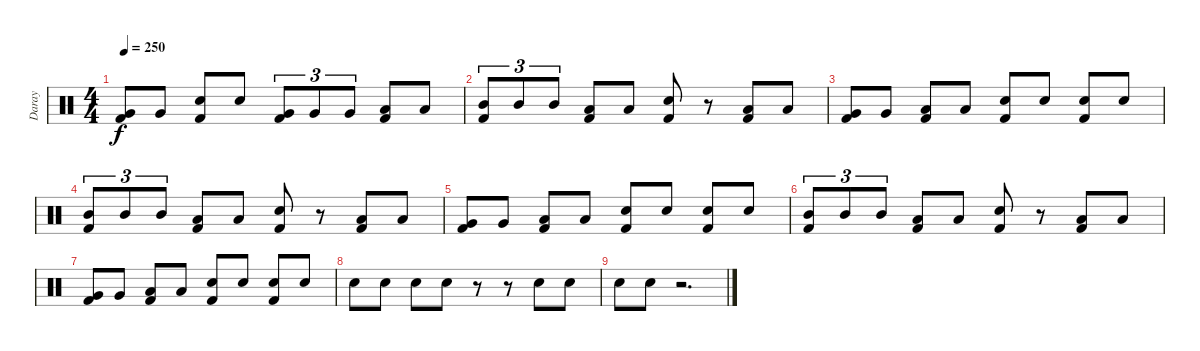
\track ("Daray" "Daray") {instrument percussion}
\staff {score}
\articulation defaults
\ts (4 4)
\tempo 250
\clef neutral
\ks c
("Very Low Tom (hit)" "Kick (hit) 2").8{dy f} "Very Low Tom (hit)".8 ("Electric Snare (hit)" "Kick (hit) 2").8 "Electric Snare (hit)".8 ("Very Low Tom (hit)" "Kick (hit) 2").8{tu (3 2)} "Very Low Tom (hit)".8{tu (3 2)} "Very Low Tom (hit)".8{tu (3 2)} ("Low Floor Tom (hit)" "Kick (hit) 2").8 "Low Floor Tom (hit)".8 |
("Mid Tom (hit)" "Kick (hit) 2").8{tu (3 2)} "Mid Tom (hit)".8{tu (3 2)} "Mid Tom (hit)".8{tu (3 2)} ("Low Tom (hit)" "Kick (hit) 2").8 "Low Tom (hit)".8 ("Electric Snare (hit)" "Kick (hit) 2").8 r.8 ("Low Tom (hit)" "Kick (hit) 2").8 "Low Tom (hit)".8 |
("Very Low Tom (hit)" "Kick (hit) 2").8 "Very Low Tom (hit)".8 ("Low Floor Tom (hit)" "Kick (hit) 2").8 "Low Floor Tom (hit)".8 ("Electric Snare (hit)" "Kick (hit) 2").8 "Electric Snare (hit)".8 ("Electric Snare (hit)" "Kick (hit) 2").8 "Electric Snare (hit)".8 |
("Mid Tom (hit)" "Kick (hit) 2").8{tu (3 2)} "Mid Tom (hit)".8{tu (3 2)} "Mid Tom (hit)".8{tu (3 2)} ("Low Tom (hit)" "Kick (hit) 2").8 "Low Tom (hit)".8 ("Electric Snare (hit)" "Kick (hit) 2").8 r.8 ("Low Tom (hit)" "Kick (hit) 2").8 "Low Tom (hit)".8 |
("Very Low Tom (hit)" "Kick (hit) 2").8 "Very Low Tom (hit)".8 ("Low Floor Tom (hit)" "Kick (hit) 2").8 "Low Floor Tom (hit)".8 ("Electric Snare (hit)" "Kick (hit) 2").8 "Electric Snare (hit)".8 ("Electric Snare (hit)" "Kick (hit) 2").8 "Electric Snare (hit)".8 |
("Mid Tom (hit)" "Kick (hit) 2").8{tu (3 2)} "Mid Tom (hit)".8{tu (3 2)} "Mid Tom (hit)".8{tu (3 2)} ("Low Tom (hit)" "Kick (hit) 2").8 "Low Tom (hit)".8 ("Electric Snare (hit)" "Kick (hit) 2").8 r.8 ("Low Tom (hit)" "Kick (hit) 2").8 "Low Tom (hit)".8 |
("Very Low Tom (hit)" "Kick (hit) 2").8 "Very Low Tom (hit)".8 ("Low Floor Tom (hit)" "Kick (hit) 2").8 "Low Floor Tom (hit)".8 ("Electric Snare (hit)" "Kick (hit) 2").8 "Electric Snare (hit)".8 ("Electric Snare (hit)" "Kick (hit) 2").8 "Electric Snare (hit)".8 |
"Electric Snare (hit)".8 "Electric Snare (hit)".8 "Electric Snare (hit)".8 "Electric Snare (hit)".8 r.8 r.8 "Electric Snare (hit)".8 "Electric Snare (hit)".8 |
"Electric Snare (hit)".8 "Electric Snare (hit)".8 r.2{d}
